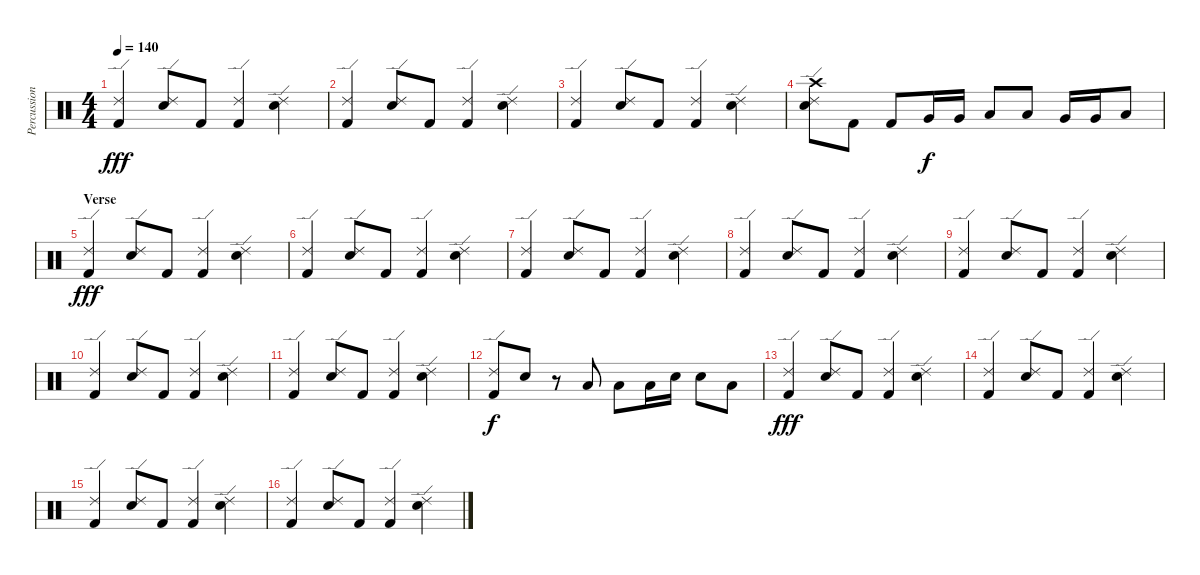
\track ("Percussion" "Percussion") {instrument percussion}
\staff {score}
\articulation defaults
\ts (4 4)
\tempo 140
\clef neutral
\ks c
("Ride (edge) 2" "Kick (hit) 2").4{dy fff} ("Ride (edge) 2" "Electric Snare (hit)").8 "Kick (hit) 2".8 ("Ride (edge) 2" "Kick (hit) 2").4 ("Ride (edge) 2" "Electric Snare (hit)").4 |
("Ride (edge) 2" "Kick (hit) 2").4 ("Ride (edge) 2" "Electric Snare (hit)").8 "Kick (hit) 2".8 ("Ride (edge) 2" "Kick (hit) 2").4 ("Ride (edge) 2" "Electric Snare (hit)").4 |
("Ride (edge) 2" "Kick (hit) 2").4 ("Ride (edge) 2" "Electric Snare (hit)").8 "Kick (hit) 2".8 ("Ride (edge) 2" "Kick (hit) 2").4 ("Ride (edge) 2" "Electric Snare (hit)").4 |
("Crash high (hit)" "Ride (edge) 2" "Electric Snare (hit)").8 "Kick (hit) 2".8 "Kick (hit) 2".8 "Very Low Tom (hit)".16{dy f} "Very Low Tom (hit)".16 "Low Floor Tom (hit)".8 "Low Floor Tom (hit)".8 "Very Low Tom (hit)".16 "Very Low Tom (hit)".16 "Low Floor Tom (hit)".8 |
\section ("" "Verse")
("Ride (edge) 2" "Kick (hit) 2").4{dy fff} ("Ride (edge) 2" "Electric Snare (hit)").8 "Kick (hit) 2".8 ("Ride (edge) 2" "Kick (hit) 2").4 ("Ride (edge) 2" "Electric Snare (hit)").4 |
("Ride (edge) 2" "Kick (hit) 2").4 ("Ride (edge) 2" "Electric Snare (hit)").8 "Kick (hit) 2".8 ("Ride (edge) 2" "Kick (hit) 2").4 ("Ride (edge) 2" "Electric Snare (hit)").4 |
("Ride (edge) 2" "Kick (hit) 2").4 ("Ride (edge) 2" "Electric Snare (hit)").8 "Kick (hit) 2".8 ("Ride (edge) 2" "Kick (hit) 2").4 ("Ride (edge) 2" "Electric Snare (hit)").4 |
("Ride (edge) 2" "Kick (hit) 2").4 ("Ride (edge) 2" "Electric Snare (hit)").8 "Kick (hit) 2".8 ("Ride (edge) 2" "Kick (hit) 2").4 ("Ride (edge) 2" "Electric Snare (hit)").4 |
("Ride (edge) 2" "Kick (hit) 2").4 ("Ride (edge) 2" "Electric Snare (hit)").8 "Kick (hit) 2".8 ("Ride (edge) 2" "Kick (hit) 2").4 ("Ride (edge) 2" "Electric Snare (hit)").4 |
("Ride (edge) 2" "Kick (hit) 2").4 ("Ride (edge) 2" "Electric Snare (hit)").8 "Kick (hit) 2".8 ("Ride (edge) 2" "Kick (hit) 2").4 ("Ride (edge) 2" "Electric Snare (hit)").4 |
("Ride (edge) 2" "Kick (hit) 2").4 ("Ride (edge) 2" "Electric Snare (hit)").8 "Kick (hit) 2".8 ("Ride (edge) 2" "Kick (hit) 2").4 ("Ride (edge) 2" "Electric Snare (hit)").4 |
("Ride (edge) 2" "Kick (hit) 2").8{dy f} "Electric Snare (hit)".8 r.8 "Low Floor Tom (hit)".8 "Low Floor Tom (hit)".8 "Low Floor Tom (hit)".16 "Electric Snare (hit)".16 "Electric Snare (hit)".8 "Low Floor Tom (hit)".8 |
("Ride (edge) 2" "Kick (hit) 2").4{dy fff} ("Ride (edge) 2" "Electric Snare (hit)").8 "Kick (hit) 2".8 ("Ride (edge) 2" "Kick (hit) 2").4 ("Ride (edge) 2" "Electric Snare (hit)").4 |
("Ride (edge) 2" "Kick (hit) 2").4 ("Ride (edge) 2" "Electric Snare (hit)").8 "Kick (hit) 2".8 ("Ride (edge) 2" "Kick (hit) 2").4 ("Ride (edge) 2" "Electric Snare (hit)").4 |
("Ride (edge) 2" "Kick (hit) 2").4 ("Ride (edge) 2" "Electric Snare (hit)").8 "Kick (hit) 2".8 ("Ride (edge) 2" "Kick (hit) 2").4 ("Ride (edge) 2" "Electric Snare (hit)").4 |
("Ride (edge) 2" "Kick (hit) 2").4 ("Ride (edge) 2" "Electric Snare (hit)").8 "Kick (hit) 2".8 ("Ride (edge) 2" "Kick (hit) 2").4 ("Ride (edge) 2" "Electric Snare (hit)").4
